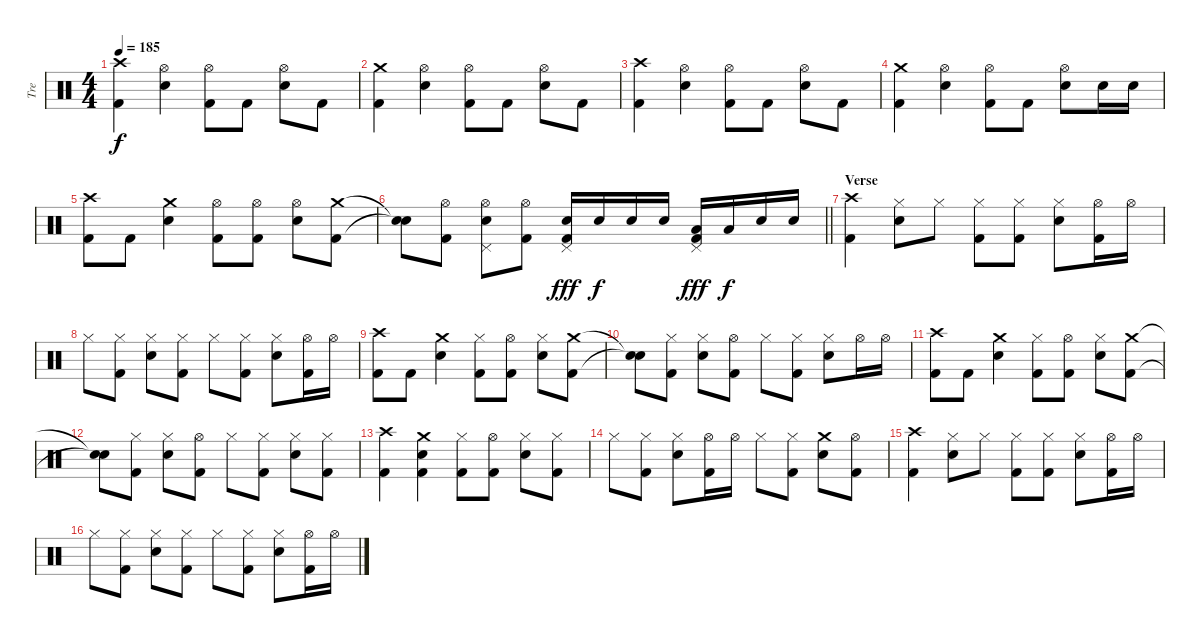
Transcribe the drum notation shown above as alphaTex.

\track ("Tre" "Tre") {instrument percussion}
\staff {score}
\articulation defaults
\ts (4 4)
\tempo 185
\clef neutral
\ks c
("Crash high (hit)" "Kick (hit) 2").4{dy f} ("Hi-Hat (open)" "Snare (hit) 2").4 ("Hi-Hat (open)" "Kick (hit) 2").8 "Kick (hit) 2".8 ("Hi-Hat (open)" "Snare (hit) 2").8 "Kick (hit) 2".8 |
("Crash medium (hit)" "Kick (hit) 2").4 ("Hi-Hat (open)" "Snare (hit) 2").4 ("Hi-Hat (open)" "Kick (hit) 2").8 "Kick (hit) 2".8 ("Hi-Hat (open)" "Snare (hit) 2").8 "Kick (hit) 2".8 |
("Crash high (hit)" "Kick (hit) 2").4 ("Hi-Hat (open)" "Snare (hit) 2").4 ("Hi-Hat (open)" "Kick (hit) 2").8 "Kick (hit) 2".8 ("Hi-Hat (open)" "Snare (hit) 2").8 "Kick (hit) 2".8 |
("Crash medium (hit)" "Kick (hit) 2").4 ("Hi-Hat (open)" "Snare (hit) 2").4 ("Hi-Hat (open)" "Kick (hit) 2").8 "Kick (hit) 2".8 ("Hi-Hat (open)" "Snare (hit) 2").8 "Snare (hit) 2".16 "Snare (hit) 2".16 |
("Crash high (hit)" "Kick (hit) 2").8 "Kick (hit) 2".8 ("Crash medium (hit)" "Snare (hit) 2").4 ("Hi-Hat (open)" "Kick (hit) 2").8 ("Hi-Hat (open)" "Kick (hit) 2").8 ("Hi-Hat (open)" "Snare (hit) 2").8 ("Crash medium (hit)" "Kick (hit) 2").8 |
\barLineRight lightlight
("Snare (hit)"{t} "Snare (hit)"{t}).8 ("Hi-Hat (open)" "Kick (hit) 2").8 ("Hi-Hat (open)" "Snare (hit) 2" "Pedal Hi-Hat (hit)").8 ("Hi-Hat (open)" "Kick (hit) 2").8 ("Snare (hit) 2" "Pedal Hi-Hat (hit)" "Kick (hit) 2").16{dy fff} "Snare (hit) 2".16{dy f} "Snare (hit) 2".16 "Snare (hit) 2".16 ("Low Tom (hit)" "Pedal Hi-Hat (hit)" "Kick (hit) 2").16{dy fff} "Low Tom (hit)".16{dy f} "Snare (hit) 2".16 "Snare (hit) 2".16 |
\section ("" "Verse")
("Crash high (hit)" "Kick (hit) 2").4 ("Hi-Hat (closed)" "Snare (hit) 2").8 "Hi-Hat (closed)".8 ("Hi-Hat (closed)" "Kick (hit) 2").8 ("Hi-Hat (closed)" "Kick (hit) 2").8 ("Hi-Hat (closed)" "Snare (hit) 2").8 ("Hi-Hat (open)" "Kick (hit) 2").16 "Hi-Hat (open)".16 |
"Hi-Hat (closed)".8 ("Hi-Hat (closed)" "Kick (hit) 2").8 ("Hi-Hat (closed)" "Snare (hit) 2").8 ("Hi-Hat (closed)" "Kick (hit) 2").8 "Hi-Hat (closed)".8 ("Hi-Hat (closed)" "Kick (hit) 2").8 ("Hi-Hat (closed)" "Snare (hit) 2").8 ("Hi-Hat (open)" "Kick (hit) 2").16 "Hi-Hat (open)".16 |
("Crash high (hit)" "Kick (hit) 2").8 "Kick (hit) 2".8 ("Crash medium (hit)" "Snare (hit) 2").4 ("Hi-Hat (closed)" "Kick (hit) 2").8 ("Hi-Hat (open)" "Kick (hit) 2").8 ("Hi-Hat (closed)" "Snare (hit) 2").8 ("Crash medium (hit)" "Kick (hit) 2").8 |
("Snare (hit)"{t} "Snare (hit)"{t}).8 ("Hi-Hat (closed)" "Kick (hit) 2").8 ("Hi-Hat (closed)" "Snare (hit) 2").8 ("Hi-Hat (open)" "Kick (hit) 2").8 "Hi-Hat (closed)".8 ("Hi-Hat (closed)" "Kick (hit) 2").8 ("Hi-Hat (closed)" "Snare (hit) 2").8 "Hi-Hat (open)".16 "Hi-Hat (open)".16 |
("Crash high (hit)" "Kick (hit) 2").8 "Kick (hit) 2".8 ("Crash medium (hit)" "Snare (hit) 2").4 ("Hi-Hat (closed)" "Kick (hit) 2").8 ("Hi-Hat (open)" "Kick (hit) 2").8 ("Hi-Hat (closed)" "Snare (hit) 2").8 ("Crash medium (hit)" "Kick (hit) 2").8 |
("Snare (hit)"{t} "Snare (hit)"{t}).8 ("Hi-Hat (closed)" "Kick (hit) 2").8 ("Hi-Hat (closed)" "Snare (hit) 2").8 ("Hi-Hat (open)" "Kick (hit) 2").8 "Hi-Hat (closed)".8 ("Hi-Hat (closed)" "Kick (hit) 2").8 ("Hi-Hat (closed)" "Snare (hit) 2").8 ("Hi-Hat (closed)" "Kick (hit) 2").8 |
("Crash high (hit)" "Kick (hit) 2").4 ("Crash medium (hit)" "Snare (hit) 2" "Kick (hit) 2").4 ("Hi-Hat (closed)" "Kick (hit) 2").8 ("Hi-Hat (open)" "Kick (hit) 2").8 ("Hi-Hat (closed)" "Snare (hit) 2").8 ("Hi-Hat (closed)" "Kick (hit) 2").8 |
"Hi-Hat (closed)".8 ("Hi-Hat (closed)" "Kick (hit) 2").8 ("Hi-Hat (closed)" "Snare (hit) 2").8 ("Hi-Hat (open)" "Kick (hit) 2").16 "Hi-Hat (open)".16 "Hi-Hat (closed)".8 ("Hi-Hat (closed)" "Kick (hit) 2").8 ("Crash medium (hit)" "Snare (hit) 2").8 ("Hi-Hat (open)" "Kick (hit) 2").8 |
("Crash high (hit)" "Kick (hit) 2").4 ("Hi-Hat (closed)" "Snare (hit) 2").8 "Hi-Hat (closed)".8 ("Hi-Hat (closed)" "Kick (hit) 2").8 ("Hi-Hat (closed)" "Kick (hit) 2").8 ("Hi-Hat (closed)" "Snare (hit) 2").8 ("Hi-Hat (open)" "Kick (hit) 2").16 "Hi-Hat (open)".16 |
"Hi-Hat (closed)".8 ("Hi-Hat (closed)" "Kick (hit) 2").8 ("Hi-Hat (closed)" "Snare (hit) 2").8 ("Hi-Hat (closed)" "Kick (hit) 2").8 "Hi-Hat (closed)".8 ("Hi-Hat (closed)" "Kick (hit) 2").8 ("Hi-Hat (closed)" "Snare (hit) 2").8 ("Hi-Hat (open)" "Kick (hit) 2").16 "Hi-Hat (open)".16
